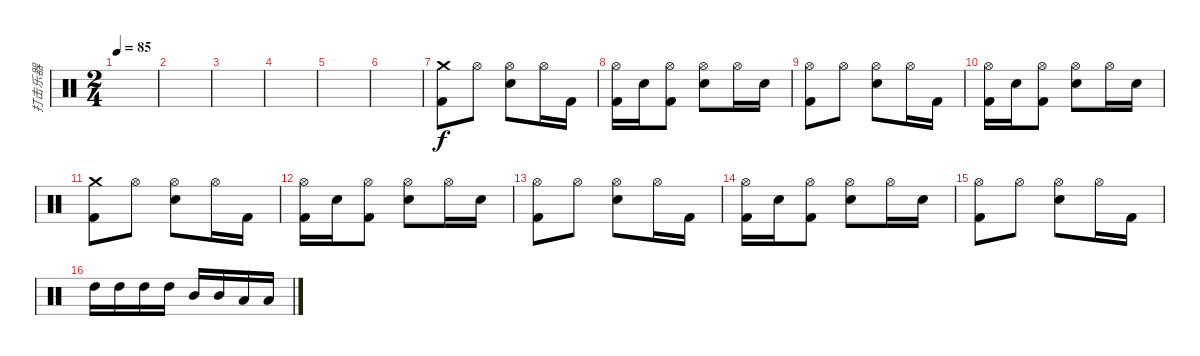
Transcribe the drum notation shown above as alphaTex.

\track ("打击乐器" "打击乐器") {instrument percussion}
\staff {score}
\articulation defaults
\ts (2 4)
\tempo 85
\clef neutral
\ks c
|
|
|
|
|
|
("Crash medium (hit)" "Kick (hit) 2").8 "Hi-Hat (open)".8 ("Hi-Hat (open)" "Electric Snare (hit)").8 "Hi-Hat (open)".16 "Kick (hit) 2".16 |
("Hi-Hat (open)" "Kick (hit) 2").16 "Electric Snare (hit)".16 ("Hi-Hat (open)" "Kick (hit) 2").8 ("Hi-Hat (open)" "Electric Snare (hit)").8 "Hi-Hat (open)".16 "Electric Snare (hit)".16 |
("Hi-Hat (open)" "Kick (hit) 2").8 "Hi-Hat (open)".8 ("Hi-Hat (open)" "Electric Snare (hit)").8 "Hi-Hat (open)".16 "Kick (hit) 2".16 |
("Hi-Hat (open)" "Kick (hit) 2").16 "Electric Snare (hit)".16 ("Hi-Hat (open)" "Kick (hit) 2").8 ("Hi-Hat (open)" "Electric Snare (hit)").8 "Hi-Hat (open)".16 "Electric Snare (hit)".16 |
("Crash medium (hit)" "Kick (hit) 2").8 "Hi-Hat (open)".8 ("Hi-Hat (open)" "Electric Snare (hit)").8 "Hi-Hat (open)".16 "Kick (hit) 2".16 |
("Hi-Hat (open)" "Kick (hit) 2").16 "Electric Snare (hit)".16 ("Hi-Hat (open)" "Kick (hit) 2").8 ("Hi-Hat (open)" "Electric Snare (hit)").8 "Hi-Hat (open)".16 "Electric Snare (hit)".16 |
("Hi-Hat (open)" "Kick (hit) 2").8 "Hi-Hat (open)".8 ("Hi-Hat (open)" "Electric Snare (hit)").8 "Hi-Hat (open)".16 "Kick (hit) 2".16 |
("Hi-Hat (open)" "Kick (hit) 2").16 "Electric Snare (hit)".16 ("Hi-Hat (open)" "Kick (hit) 2").8 ("Hi-Hat (open)" "Electric Snare (hit)").8 "Hi-Hat (open)".16 "Electric Snare (hit)".16 |
("Hi-Hat (open)" "Kick (hit) 2").8 "Hi-Hat (open)".8 ("Hi-Hat (open)" "Electric Snare (hit)").8 "Hi-Hat (open)".16 "Kick (hit) 2".16 |
"High Tom (hit)".16 "High Tom (hit)".16 "High Tom (hit)".16 "High Tom (hit)".16 "Mid Tom (hit)".16 "Mid Tom (hit)".16 "Low Tom (hit)".16 "Low Tom (hit)".16
